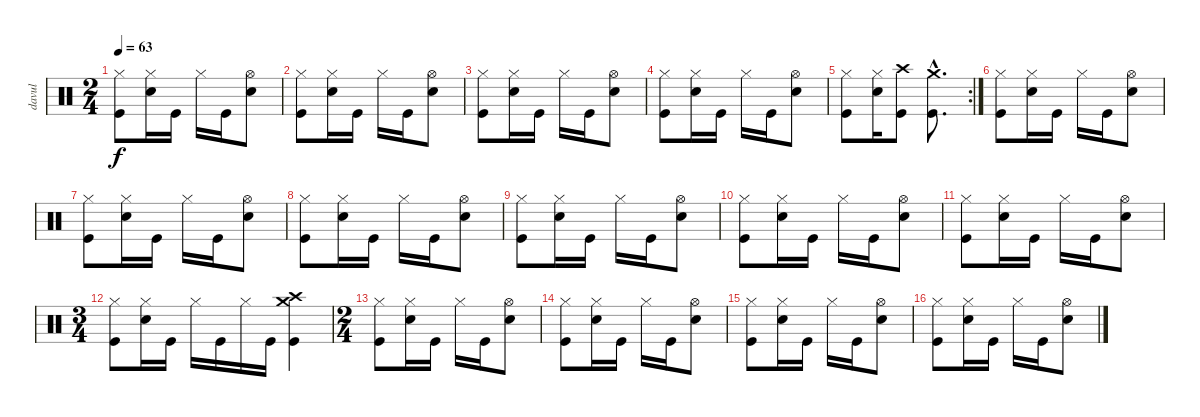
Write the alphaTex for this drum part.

\track ("davul" "davul") {instrument percussion}
\staff {score}
\articulation defaults
\ts (2 4)
\tempo 63
\clef neutral
\ks c
("Hi-Hat (closed)" "Kick (hit)").8{dy f} ("Hi-Hat (closed)" "Snare (hit) 2").16 "Kick (hit)".16 "Hi-Hat (closed)".16 "Kick (hit)".16 ("Hi-Hat (open)" "Snare (hit) 2").8 |
("Hi-Hat (closed)" "Kick (hit)").8 ("Hi-Hat (closed)" "Snare (hit) 2").16 "Kick (hit)".16 "Hi-Hat (closed)".16 "Kick (hit)".16 ("Hi-Hat (open)" "Snare (hit) 2").8 |
("Hi-Hat (closed)" "Kick (hit)").8 ("Hi-Hat (closed)" "Snare (hit) 2").16 "Kick (hit)".16 "Hi-Hat (closed)".16 "Kick (hit)".16 ("Hi-Hat (open)" "Snare (hit) 2").8 |
("Hi-Hat (closed)" "Kick (hit)").8 ("Hi-Hat (closed)" "Snare (hit) 2").16 "Kick (hit)".16 "Hi-Hat (closed)".16 "Kick (hit)".16 ("Hi-Hat (open)" "Snare (hit) 2").8 |
\rc 2
("Hi-Hat (closed)" "Kick (hit)").8 ("Hi-Hat (closed)" "Snare (hit) 2").16 ("Crash high (hit)" "Kick (hit)").8 ("Crash medium (hit)"{hac} "Kick (hit)"{hac}).8{d} |
("Hi-Hat (closed)" "Kick (hit)").8 ("Hi-Hat (closed)" "Snare (hit) 2").16 "Kick (hit)".16 "Hi-Hat (closed)".16 "Kick (hit)".16 ("Hi-Hat (open)" "Snare (hit) 2").8 |
("Hi-Hat (closed)" "Kick (hit)").8 ("Hi-Hat (closed)" "Snare (hit) 2").16 "Kick (hit)".16 "Hi-Hat (closed)".16 "Kick (hit)".16 ("Hi-Hat (open)" "Snare (hit) 2").8 |
("Hi-Hat (closed)" "Kick (hit)").8 ("Hi-Hat (closed)" "Snare (hit) 2").16 "Kick (hit)".16 "Hi-Hat (closed)".16 "Kick (hit)".16 ("Hi-Hat (open)" "Snare (hit) 2").8 |
("Hi-Hat (closed)" "Kick (hit)").8 ("Hi-Hat (closed)" "Snare (hit) 2").16 "Kick (hit)".16 "Hi-Hat (closed)".16 "Kick (hit)".16 ("Hi-Hat (open)" "Snare (hit) 2").8 |
("Hi-Hat (closed)" "Kick (hit)").8 ("Hi-Hat (closed)" "Snare (hit) 2").16 "Kick (hit)".16 "Hi-Hat (closed)".16 "Kick (hit)".16 ("Hi-Hat (open)" "Snare (hit) 2").8 |
("Hi-Hat (closed)" "Kick (hit)").8 ("Hi-Hat (closed)" "Snare (hit) 2").16 "Kick (hit)".16 "Hi-Hat (closed)".16 "Kick (hit)".16 ("Hi-Hat (open)" "Snare (hit) 2").8 |
\ts (3 4)
("Hi-Hat (closed)" "Kick (hit)").8 ("Hi-Hat (closed)" "Snare (hit) 2").16 "Kick (hit)".16 "Hi-Hat (closed)".16 "Kick (hit)".16 "Hi-Hat (closed)".16 "Kick (hit)".16 ("Crash medium (hit)" "Crash high (hit)" "Kick (hit)").4 |
\ts (2 4)
("Hi-Hat (closed)" "Kick (hit)").8 ("Hi-Hat (closed)" "Snare (hit) 2").16 "Kick (hit)".16 "Hi-Hat (closed)".16 "Kick (hit)".16 ("Hi-Hat (open)" "Snare (hit) 2").8 |
("Hi-Hat (closed)" "Kick (hit)").8 ("Hi-Hat (closed)" "Snare (hit) 2").16 "Kick (hit)".16 "Hi-Hat (closed)".16 "Kick (hit)".16 ("Hi-Hat (open)" "Snare (hit) 2").8 |
("Hi-Hat (closed)" "Kick (hit)").8 ("Hi-Hat (closed)" "Snare (hit) 2").16 "Kick (hit)".16 "Hi-Hat (closed)".16 "Kick (hit)".16 ("Hi-Hat (open)" "Snare (hit) 2").8 |
("Hi-Hat (closed)" "Kick (hit)").8 ("Hi-Hat (closed)" "Snare (hit) 2").16 "Kick (hit)".16 "Hi-Hat (closed)".16 "Kick (hit)".16 ("Hi-Hat (open)" "Snare (hit) 2").8
